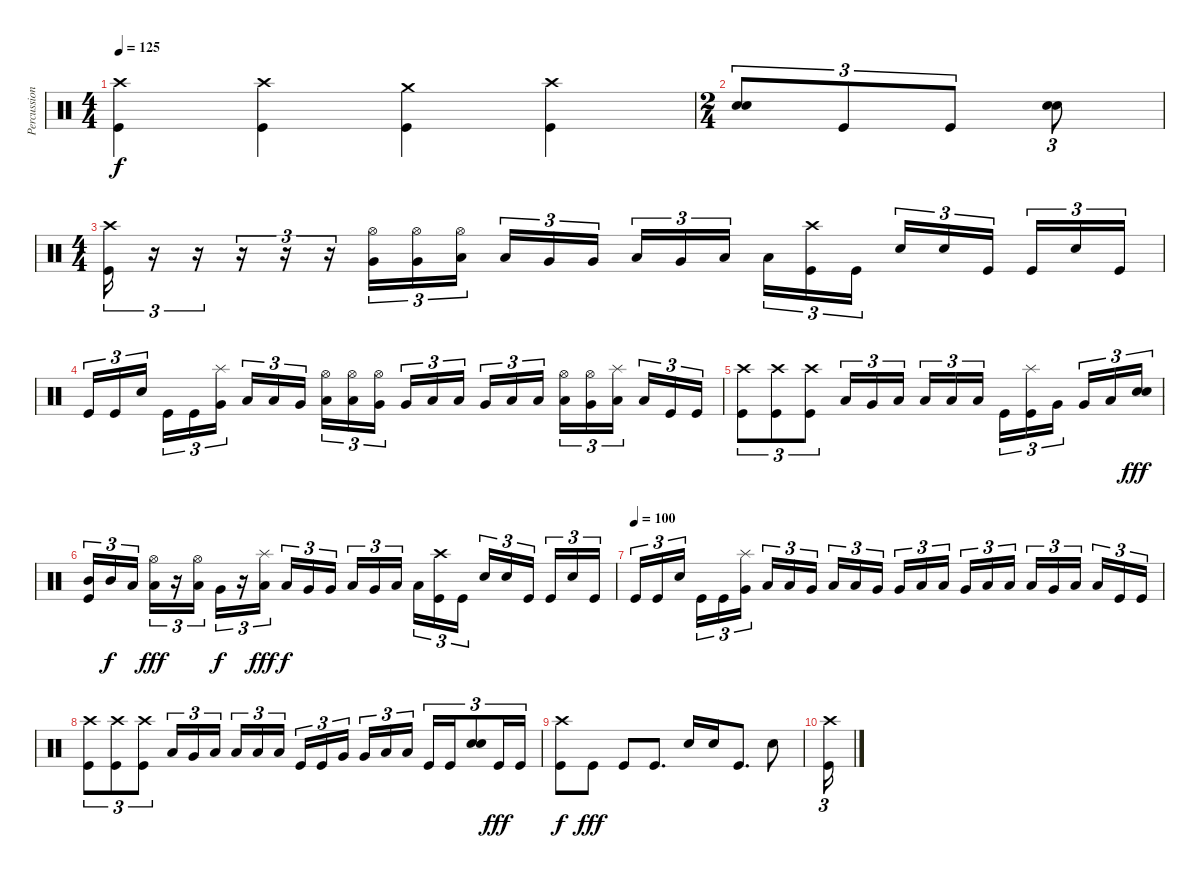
\track ("Percussion/Nicko McBrain" "Percussion") {instrument percussion}
\staff {score}
\articulation defaults
\ts (4 4)
\tempo 125
\clef neutral
\ks c
("Crash high (hit)" "Kick (hit)").4{dy f} ("Crash high (hit)" "Kick (hit)").4 ("Crash medium (hit)" "Kick (hit)").4 ("Crash high (hit)" "Kick (hit)").4 |
\ts (2 4)
("Electric Snare (hit)" "Snare (hit) 2").8{tu (3 2)} "Kick (hit)".8{tu (3 2)} "Kick (hit)".8{tu (3 2)} ("Electric Snare (hit)" "Snare (hit) 2").8{tu (3 2)} |
\ts (4 4)
("Crash high (hit)" "Kick (hit)").16{tu (3 2)} r.16{tu (3 2)} r.16{tu (3 2)} r.16{tu (3 2)} r.16{tu (3 2)} r.16{tu (3 2)} ("Hi-Hat (open)" "Very Low Tom (hit)").16{tu (3 2)} ("Hi-Hat (open)" "Very Low Tom (hit)").16{tu (3 2)} ("Hi-Hat (open)" "Low Tom (hit)").16{tu (3 2) beam splitsecondary} "Low Tom (hit)".16{tu (3 2)} "Very Low Tom (hit)".16{tu (3 2)} "Very Low Tom (hit)".16{tu (3 2)} "Low Tom (hit)".16{tu (3 2)} "Very Low Tom (hit)".16{tu (3 2)} "Low Floor Tom (hit)".16{tu (3 2) beam splitsecondary} "Low Floor Tom (hit)".16{tu (3 2)} ("Crash high (hit)" "Kick (hit)").16{tu (3 2)} "Kick (hit)".16{tu (3 2)} "Electric Snare (hit)".16{tu (3 2)} "Electric Snare (hit)".16{tu (3 2)} "Kick (hit)".16{tu (3 2) beam splitsecondary} "Kick (hit)".16{tu (3 2)} "Electric Snare (hit)".16{tu (3 2)} "Kick (hit)".16{tu (3 2)} |
"Kick (hit)".16{tu (3 2)} "Kick (hit)".16{tu (3 2)} "Electric Snare (hit)".16{tu (3 2) beam splitsecondary} "Kick (hit)".16{tu (3 2)} "Kick (hit)".16{tu (3 2)} ("Splash (hit)" "Very Low Tom (hit)").16{tu (3 2)} "Low Floor Tom (hit)".16{tu (3 2)} "Low Floor Tom (hit)".16{tu (3 2)} "Very Low Tom (hit)".16{tu (3 2) beam splitsecondary} ("Hi-Hat (open)" "Low Floor Tom (hit)").16{tu (3 2)} ("Hi-Hat (open)" "Low Floor Tom (hit)").16{tu (3 2)} ("Hi-Hat (open)" "Very Low Tom (hit)").16{tu (3 2)} "Very Low Tom (hit)".16{tu (3 2)} "Low Floor Tom (hit)".16{tu (3 2)} "Low Floor Tom (hit)".16{tu (3 2) beam splitsecondary} "Very Low Tom (hit)".16{tu (3 2)} "Low Floor Tom (hit)".16{tu (3 2)} "Low Floor Tom (hit)".16{tu (3 2)} ("Hi-Hat (open)" "Low Tom (hit)").16{tu (3 2)} ("Hi-Hat (open)" "Very Low Tom (hit)").16{tu (3 2)} ("Splash (hit)" "Low Floor Tom (hit)").16{tu (3 2) beam splitsecondary} "Low Floor Tom (hit)".16{tu (3 2)} "Kick (hit)".16{tu (3 2)} "Kick (hit)".16{tu (3 2)} |
("Crash high (hit)" "Kick (hit)").8{tu (3 2)} ("Crash high (hit)" "Kick (hit)").8{tu (3 2)} ("Crash high (hit)" "Kick (hit)").8{tu (3 2)} "Low Tom (hit)".16{tu (3 2)} "Very Low Tom (hit)".16{tu (3 2)} "Low Floor Tom (hit)".16{tu (3 2) beam splitsecondary} "Low Floor Tom (hit)".16{tu (3 2)} "Low Floor Tom (hit)".16{tu (3 2)} "Low Floor Tom (hit)".16{tu (3 2)} "Kick (hit)".16{tu (3 2)} ("Splash (hit)" "Kick (hit)").16{tu (3 2)} "Very Low Tom (hit)".16{tu (3 2) beam splitsecondary} "Very Low Tom (hit)".16{tu (3 2)} "Low Floor Tom (hit)".16{tu (3 2)} ("Electric Snare (hit)" "Snare (hit) 2").16{tu (3 2) dy fff} |
("Mid Tom (hit)" "Kick (hit)").16{tu (3 2)} "Mid Tom (hit)".16{tu (3 2) dy f} "Low Tom (hit)".16{tu (3 2) beam splitsecondary} ("Hi-Hat (open)" "Low Tom (hit)").16{tu (3 2) dy fff} r.16{tu (3 2)} ("Hi-Hat (open)" "Low Tom (hit)").16{tu (3 2)} "Very Low Tom (hit)".16{tu (3 2) dy f} r.16{tu (3 2)} ("Splash (hit)" "Low Tom (hit)").16{tu (3 2) dy fff beam splitsecondary} "Low Tom (hit)".16{tu (3 2) dy f} "Very Low Tom (hit)".16{tu (3 2)} "Very Low Tom (hit)".16{tu (3 2)} "Low Tom (hit)".16{tu (3 2)} "Very Low Tom (hit)".16{tu (3 2)} "Low Floor Tom (hit)".16{tu (3 2) beam splitsecondary} "Low Floor Tom (hit)".16{tu (3 2)} ("Crash high (hit)" "Kick (hit)").16{tu (3 2)} "Kick (hit)".16{tu (3 2)} "Electric Snare (hit)".16{tu (3 2)} "Electric Snare (hit)".16{tu (3 2)} "Kick (hit)".16{tu (3 2) beam splitsecondary} "Kick (hit)".16{tu (3 2)} "Electric Snare (hit)".16{tu (3 2)} "Kick (hit)".16{tu (3 2)} |
\tempo (100)
"Kick (hit)".16{tu (3 2)} "Kick (hit)".16{tu (3 2)} "Electric Snare (hit)".16{tu (3 2) beam splitsecondary} "Kick (hit)".16{tu (3 2)} "Kick (hit)".16{tu (3 2)} ("Splash (hit)" "Very Low Tom (hit)").16{tu (3 2)} "Low Floor Tom (hit)".16{tu (3 2)} "Low Floor Tom (hit)".16{tu (3 2)} "Very Low Tom (hit)".16{tu (3 2) beam splitsecondary} "Low Floor Tom (hit)".16{tu (3 2)} "Low Floor Tom (hit)".16{tu (3 2)} "Very Low Tom (hit)".16{tu (3 2)} "Very Low Tom (hit)".16{tu (3 2)} "Low Floor Tom (hit)".16{tu (3 2)} "Low Floor Tom (hit)".16{tu (3 2) beam splitsecondary} "Very Low Tom (hit)".16{tu (3 2)} "Low Floor Tom (hit)".16{tu (3 2)} "Low Floor Tom (hit)".16{tu (3 2)} "Low Tom (hit)".16{tu (3 2)} "Very Low Tom (hit)".16{tu (3 2)} "Low Floor Tom (hit)".16{tu (3 2) beam splitsecondary} "Low Floor Tom (hit)".16{tu (3 2)} "Kick (hit)".16{tu (3 2)} "Kick (hit)".16{tu (3 2)} |
("Crash high (hit)" "Kick (hit)").8{tu (3 2)} ("Crash high (hit)" "Kick (hit)").8{tu (3 2)} ("Crash high (hit)" "Kick (hit)").8{tu (3 2)} "Low Tom (hit)".16{tu (3 2)} "Very Low Tom (hit)".16{tu (3 2)} "Low Floor Tom (hit)".16{tu (3 2) beam splitsecondary} "Low Floor Tom (hit)".16{tu (3 2)} "Low Floor Tom (hit)".16{tu (3 2)} "Low Floor Tom (hit)".16{tu (3 2)} "Kick (hit)".16{tu (3 2)} "Kick (hit)".16{tu (3 2)} "Very Low Tom (hit)".16{tu (3 2) beam splitsecondary} "Very Low Tom (hit)".16{tu (3 2)} "Low Floor Tom (hit)".16{tu (3 2)} "Low Floor Tom (hit)".16{tu (3 2)} "Kick (hit)".16{tu (3 2)} "Kick (hit)".16{tu (3 2)} ("Electric Snare (hit)" "Snare (hit) 2").8{tu (3 2)} "Kick (hit)".16{tu (3 2) dy fff} "Kick (hit)".16{tu (3 2)} |
("Crash high (hit)" "Kick (hit)").8{dy f} "Kick (hit)".8{dy fff} "Kick (hit)".8 "Kick (hit)".8{d} "Electric Snare (hit)".16 "Electric Snare (hit)".16 "Kick (hit)".8{d} "Electric Snare (hit)".8 |
("Crash high (hit)" "Kick (hit)").16{tu (3 2)}
